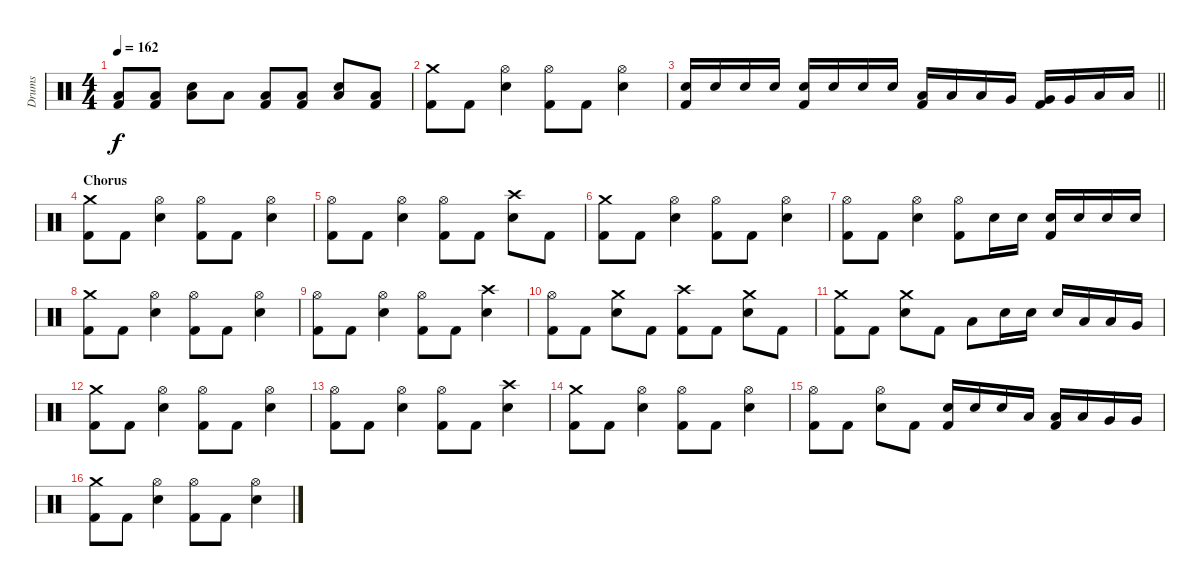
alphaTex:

\track ("Drums" "Drums") {instrument percussion}
\staff {score}
\articulation defaults
\ts (4 4)
\tempo 162
\clef neutral
\ks c
("Low Floor Tom (hit)" "Kick (hit) 2").8{dy f} ("Low Floor Tom (hit)" "Kick (hit) 2").8 ("Low Floor Tom (hit)" "Electric Snare (hit)").8 "Low Floor Tom (hit)".8 ("Low Floor Tom (hit)" "Kick (hit) 2").8 ("Low Floor Tom (hit)" "Kick (hit) 2").8 ("Low Floor Tom (hit)" "Electric Snare (hit)").8 ("Low Floor Tom (hit)" "Kick (hit) 2").8 |
("Crash medium (hit)" "Kick (hit) 2").8 "Kick (hit) 2".8 ("Hi-Hat (open)" "Electric Snare (hit)").4 ("Hi-Hat (open)" "Kick (hit) 2").8 "Kick (hit) 2".8 ("Hi-Hat (open)" "Electric Snare (hit)").4 |
\barLineRight lightlight
("Electric Snare (hit)" "Kick (hit) 2").16 "Electric Snare (hit)".16 "Electric Snare (hit)".16 "Electric Snare (hit)".16 ("Electric Snare (hit)" "Kick (hit) 2").16 "Electric Snare (hit)".16 "Electric Snare (hit)".16 "Electric Snare (hit)".16 ("Low Tom (hit)" "Kick (hit) 2").16 "Low Tom (hit)".16 "Low Tom (hit)".16 "Very Low Tom (hit)".16 ("Very Low Tom (hit)" "Kick (hit) 2").16 "Very Low Tom (hit)".16 "Low Floor Tom (hit)".16 "Low Floor Tom (hit)".16 |
\section ("" "Chorus")
("Crash medium (hit)" "Kick (hit) 2").8 "Kick (hit) 2".8 ("Hi-Hat (open)" "Electric Snare (hit)").4 ("Hi-Hat (open)" "Kick (hit) 2").8 "Kick (hit) 2".8 ("Hi-Hat (open)" "Electric Snare (hit)").4 |
("Hi-Hat (open)" "Kick (hit) 2").8 "Kick (hit) 2".8 ("Hi-Hat (open)" "Electric Snare (hit)").4 ("Hi-Hat (open)" "Kick (hit) 2").8 "Kick (hit) 2".8 ("Crash high (hit)" "Electric Snare (hit)").8 "Kick (hit) 2".8 |
("Crash medium (hit)" "Kick (hit) 2").8 "Kick (hit) 2".8 ("Hi-Hat (open)" "Electric Snare (hit)").4 ("Hi-Hat (open)" "Kick (hit) 2").8 "Kick (hit) 2".8 ("Hi-Hat (open)" "Electric Snare (hit)").4 |
("Hi-Hat (open)" "Kick (hit) 2").8 "Kick (hit) 2".8 ("Hi-Hat (open)" "Electric Snare (hit)").4 ("Hi-Hat (open)" "Kick (hit) 2").8 "Electric Snare (hit)".16 "Electric Snare (hit)".16 ("Electric Snare (hit)" "Kick (hit) 2").16 "Electric Snare (hit)".16 "Electric Snare (hit)".16 "Electric Snare (hit)".16 |
("Crash medium (hit)" "Kick (hit) 2").8 "Kick (hit) 2".8 ("Hi-Hat (open)" "Electric Snare (hit)").4 ("Hi-Hat (open)" "Kick (hit) 2").8 "Kick (hit) 2".8 ("Hi-Hat (open)" "Electric Snare (hit)").4 |
("Hi-Hat (open)" "Kick (hit) 2").8 "Kick (hit) 2".8 ("Hi-Hat (open)" "Electric Snare (hit)").4 ("Hi-Hat (open)" "Kick (hit) 2").8 "Kick (hit) 2".8 ("Crash high (hit)" "Electric Snare (hit)").4 |
("Hi-Hat (open)" "Kick (hit) 2").8 "Kick (hit) 2".8 ("Crash medium (hit)" "Electric Snare (hit)").8 "Kick (hit) 2".8 ("Crash high (hit)" "Kick (hit) 2").8 "Kick (hit) 2".8 ("Crash medium (hit)" "Electric Snare (hit)").8 "Kick (hit) 2".8 |
("Crash medium (hit)" "Kick (hit) 2").8 "Kick (hit) 2".8 ("Crash medium (hit)" "Electric Snare (hit)").8 "Kick (hit) 2".8 "Low Tom (hit)".8 "Electric Snare (hit)".16 "Electric Snare (hit)".16 "Electric Snare (hit)".16 "Low Tom (hit)".16 "Low Tom (hit)".16 "Very Low Tom (hit)".16 |
("Crash medium (hit)" "Kick (hit) 2").8 "Kick (hit) 2".8 ("Hi-Hat (open)" "Electric Snare (hit)").4 ("Hi-Hat (open)" "Kick (hit) 2").8 "Kick (hit) 2".8 ("Hi-Hat (open)" "Electric Snare (hit)").4 |
("Hi-Hat (open)" "Kick (hit) 2").8 "Kick (hit) 2".8 ("Hi-Hat (open)" "Electric Snare (hit)").4 ("Hi-Hat (open)" "Kick (hit) 2").8 "Kick (hit) 2".8 ("Crash high (hit)" "Electric Snare (hit)").4 |
("Crash medium (hit)" "Kick (hit) 2").8 "Kick (hit) 2".8 ("Hi-Hat (open)" "Electric Snare (hit)").4 ("Hi-Hat (open)" "Kick (hit) 2").8 "Kick (hit) 2".8 ("Hi-Hat (open)" "Electric Snare (hit)").4 |
("Hi-Hat (open)" "Kick (hit) 2").8 "Kick (hit) 2".8 ("Hi-Hat (open)" "Electric Snare (hit)").8 "Kick (hit) 2".8 ("Electric Snare (hit)" "Kick (hit) 2").16 "Electric Snare (hit)".16 "Electric Snare (hit)".16 "Low Tom (hit)".16 ("Low Tom (hit)" "Kick (hit) 2").16 "Low Tom (hit)".16 "Very Low Tom (hit)".16 "Very Low Tom (hit)".16 |
("Crash medium (hit)" "Kick (hit) 2").8 "Kick (hit) 2".8 ("Hi-Hat (open)" "Electric Snare (hit)").4 ("Hi-Hat (open)" "Kick (hit) 2").8 "Kick (hit) 2".8 ("Hi-Hat (open)" "Electric Snare (hit)").4
